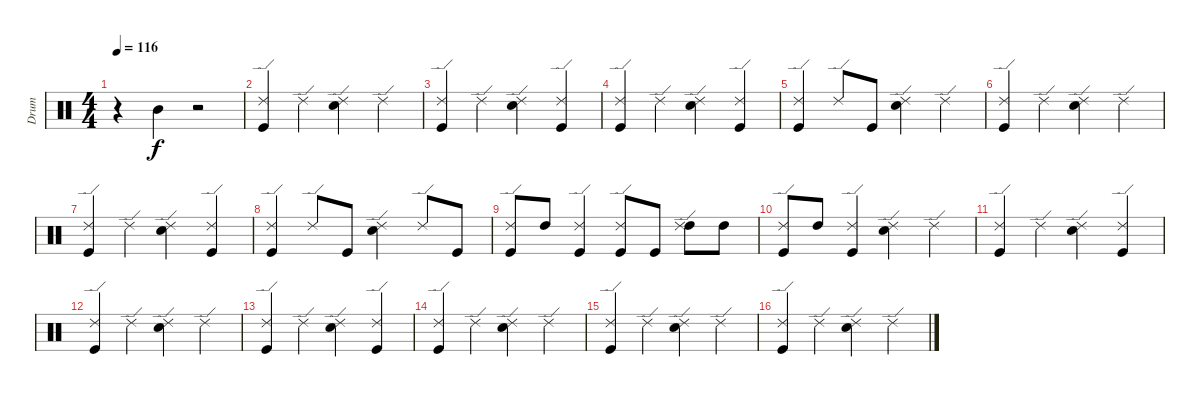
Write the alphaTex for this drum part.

\track ("Drum" "Drum") {instrument percussion}
\staff {score}
\articulation defaults
\ts (4 4)
\tempo 116
\clef neutral
\ks c
r.4{dy f} "Mid Tom (hit)".4 r.2 |
("Kick (hit)" "Ride (edge) 2").4 "Ride (edge) 2".4 ("Electric Snare (hit)" "Ride (edge) 2").4 "Ride (edge) 2".4 |
("Kick (hit)" "Ride (edge) 2").4 "Ride (edge) 2".4 ("Electric Snare (hit)" "Ride (edge) 2").4 ("Kick (hit)" "Ride (edge) 2").4 |
("Kick (hit)" "Ride (edge) 2").4 "Ride (edge) 2".4 ("Electric Snare (hit)" "Ride (edge) 2").4 ("Kick (hit)" "Ride (edge) 2").4 |
("Kick (hit)" "Ride (edge) 2").4 "Ride (edge) 2".8 "Kick (hit)".8 ("Electric Snare (hit)" "Ride (edge) 2").4 "Ride (edge) 2".4 |
("Kick (hit)" "Ride (edge) 2").4 "Ride (edge) 2".4 ("Electric Snare (hit)" "Ride (edge) 2").4 "Ride (edge) 2".4 |
("Kick (hit)" "Ride (edge) 2").4 "Ride (edge) 2".4 ("Electric Snare (hit)" "Ride (edge) 2").4 ("Kick (hit)" "Ride (edge) 2").4 |
("Kick (hit)" "Ride (edge) 2").4 "Ride (edge) 2".8 "Kick (hit)".8 ("Electric Snare (hit)" "Ride (edge) 2").4 "Ride (edge) 2".8 "Kick (hit)".8 |
("Kick (hit)" "Ride (edge) 2").8 "High Tom (hit)".8 ("Kick (hit)" "Ride (edge) 2").4 ("Kick (hit)" "Ride (edge) 2").8 "Kick (hit)".8 ("High Tom (hit)" "Ride (edge) 2").8 "High Tom (hit)".8 |
("Kick (hit)" "Ride (edge) 2").8 "High Tom (hit)".8 ("Kick (hit)" "Ride (edge) 2").4 ("Electric Snare (hit)" "Ride (edge) 2").4 "Ride (edge) 2".4 |
("Kick (hit)" "Ride (edge) 2").4 "Ride (edge) 2".4 ("Electric Snare (hit)" "Ride (edge) 2").4 ("Kick (hit)" "Ride (edge) 2").4 |
("Kick (hit)" "Ride (edge) 2").4 "Ride (edge) 2".4 ("Electric Snare (hit)" "Ride (edge) 2").4 "Ride (edge) 2".4 |
("Kick (hit)" "Ride (edge) 2").4 "Ride (edge) 2".4 ("Electric Snare (hit)" "Ride (edge) 2").4 ("Kick (hit)" "Ride (edge) 2").4 |
("Kick (hit)" "Ride (edge) 2").4 "Ride (edge) 2".4 ("Electric Snare (hit)" "Ride (edge) 2").4 "Ride (edge) 2".4 |
("Kick (hit)" "Ride (edge) 2").4 "Ride (edge) 2".4 ("Electric Snare (hit)" "Ride (edge) 2").4 "Ride (edge) 2".4 |
("Kick (hit)" "Ride (edge) 2").4 "Ride (edge) 2".4 ("Electric Snare (hit)" "Ride (edge) 2").4 "Ride (edge) 2".4
